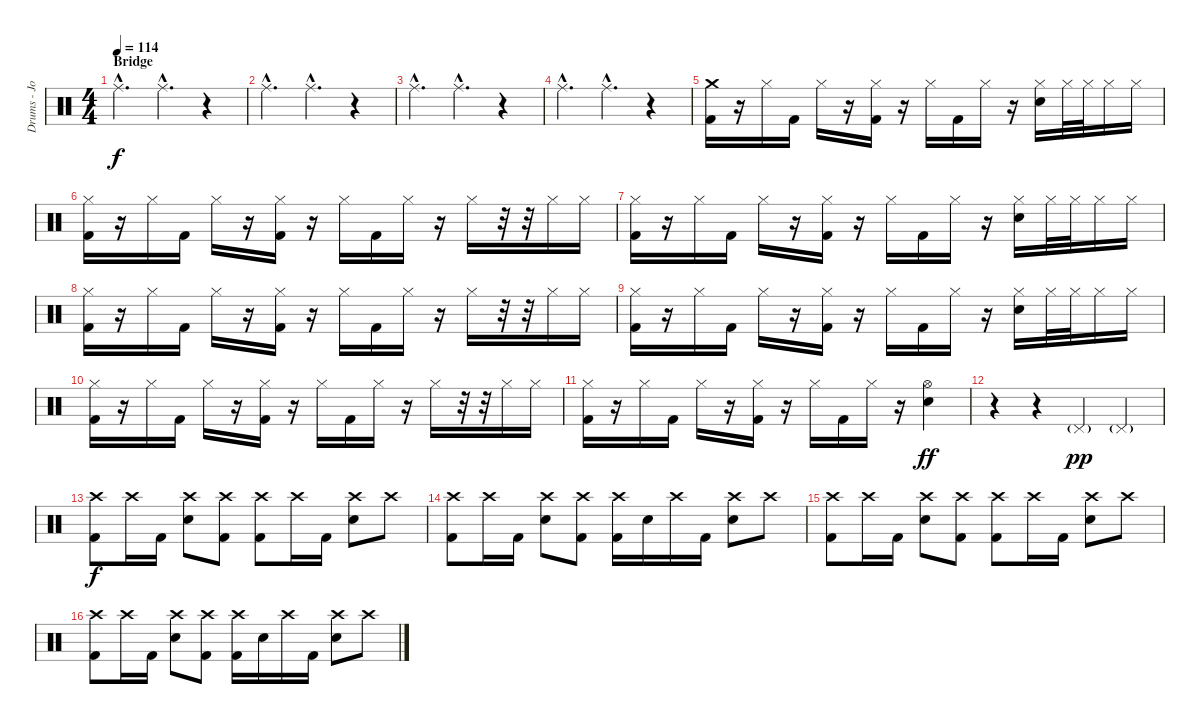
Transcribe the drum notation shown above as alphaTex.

\track ("Drums - Jon Wysocki" "Drums - Jo") {instrument percussion}
\staff {score}
\articulation defaults
\ts (4 4)
\section ("" "Bridge")
\tempo 114
\clef neutral
\ks c "Ride (middle)"{hac}.4{d dy f} "Ride (middle)"{hac}.4{d}
r.4 |
"Ride (middle)"{hac}.4{d} "Ride (middle)"{hac}.4{d} r.4 |
"Ride (middle)"{hac}.4{d} "Ride (middle)"{hac}.4{d} r.4 |
"Ride (middle)"{hac}.4{d} "Ride (middle)"{hac}.4{d} r.4 |
("Crash medium (hit)" "Kick (hit) 2").16 r.16 "Hi-Hat (closed)".16 "Kick (hit) 2".16 "Hi-Hat (closed)".16 r.16 ("Hi-Hat (closed)" "Kick (hit) 2").16 r.16 "Hi-Hat (closed)".16 "Kick (hit) 2".16 "Hi-Hat (closed)".16 r.16 ("Hi-Hat (closed)" "Electric Snare (hit)").16 "Hi-Hat (closed)".32 "Hi-Hat (closed)".32 "Hi-Hat (closed)".16 "Hi-Hat (closed)".16 |
("Hi-Hat (closed)" "Kick (hit) 2").16 r.16 "Hi-Hat (closed)".16 "Kick (hit) 2".16 "Hi-Hat (closed)".16 r.16 ("Hi-Hat (closed)" "Kick (hit) 2").16 r.16 "Hi-Hat (closed)".16 "Kick (hit) 2".16 "Hi-Hat (closed)".16 r.16 "Hi-Hat (closed)".16 r.32 r.32 "Hi-Hat (closed)".16 "Hi-Hat (closed)".16 |
("Hi-Hat (closed)" "Kick (hit) 2").16 r.16 "Hi-Hat (closed)".16 "Kick (hit) 2".16 "Hi-Hat (closed)".16 r.16 ("Hi-Hat (closed)" "Kick (hit) 2").16 r.16 "Hi-Hat (closed)".16 "Kick (hit) 2".16 "Hi-Hat (closed)".16 r.16 ("Hi-Hat (closed)" "Electric Snare (hit)").16 "Hi-Hat (closed)".32 "Hi-Hat (closed)".32 "Hi-Hat (closed)".16 "Hi-Hat (closed)".16 |
("Hi-Hat (closed)" "Kick (hit) 2").16 r.16 "Hi-Hat (closed)".16 "Kick (hit) 2".16 "Hi-Hat (closed)".16 r.16 ("Hi-Hat (closed)" "Kick (hit) 2").16 r.16 "Hi-Hat (closed)".16 "Kick (hit) 2".16 "Hi-Hat (closed)".16 r.16 "Hi-Hat (closed)".16 r.32 r.32 "Hi-Hat (closed)".16 "Hi-Hat (closed)".16 |
("Hi-Hat (closed)" "Kick (hit) 2").16 r.16 "Hi-Hat (closed)".16 "Kick (hit) 2".16 "Hi-Hat (closed)".16 r.16 ("Hi-Hat (closed)" "Kick (hit) 2").16 r.16 "Hi-Hat (closed)".16 "Kick (hit) 2".16 "Hi-Hat (closed)".16 r.16 ("Hi-Hat (closed)" "Electric Snare (hit)").16 "Hi-Hat (closed)".32 "Hi-Hat (closed)".32 "Hi-Hat (closed)".16 "Hi-Hat (closed)".16 |
("Hi-Hat (closed)" "Kick (hit) 2").16 r.16 "Hi-Hat (closed)".16 "Kick (hit) 2".16 "Hi-Hat (closed)".16 r.16 ("Hi-Hat (closed)" "Kick (hit) 2").16 r.16 "Hi-Hat (closed)".16 "Kick (hit) 2".16 "Hi-Hat (closed)".16 r.16 "Hi-Hat (closed)".16 r.32 r.32 "Hi-Hat (closed)".16 "Hi-Hat (closed)".16 |
("Hi-Hat (closed)" "Kick (hit) 2").16 r.16 "Hi-Hat (closed)".16 "Kick (hit) 2".16 "Hi-Hat (closed)".16 r.16 ("Hi-Hat (closed)" "Kick (hit) 2").16 r.16 "Hi-Hat (closed)".16 "Kick (hit) 2".16 "Hi-Hat (closed)".16 r.16 ("Hi-Hat (open)" "Electric Snare (hit)").4{dy ff} |
r.4 r.4 "Pedal Hi-Hat (hit)"{g}.4{dy pp} "Pedal Hi-Hat (hit)"{g}.4 |
("Crash high (hit)" "Kick (hit) 2").8{dy f} "Crash high (hit)".16 "Kick (hit) 2".16 ("Crash high (hit)" "Electric Snare (hit)").8 ("Crash high (hit)" "Kick (hit) 2").8 ("Crash high (hit)" "Kick (hit) 2").8 "Crash high (hit)".16 "Kick (hit) 2".16 ("Crash high (hit)" "Electric Snare (hit)").8 "Crash high (hit)".8 |
("Crash high (hit)" "Kick (hit) 2").8 "Crash high (hit)".16 "Kick (hit) 2".16 ("Crash high (hit)" "Electric Snare (hit)").8 ("Crash high (hit)" "Kick (hit) 2").8 ("Crash high (hit)" "Kick (hit) 2").16 "Electric Snare (hit)".16 "Crash high (hit)".16 "Kick (hit) 2".16 ("Crash high (hit)" "Electric Snare (hit)").8 "Crash high (hit)".8 |
("Crash high (hit)" "Kick (hit) 2").8 "Crash high (hit)".16 "Kick (hit) 2".16 ("Crash high (hit)" "Electric Snare (hit)").8 ("Crash high (hit)" "Kick (hit) 2").8 ("Crash high (hit)" "Kick (hit) 2").8 "Crash high (hit)".16 "Kick (hit) 2".16 ("Crash high (hit)" "Electric Snare (hit)").8 "Crash high (hit)".8 |
("Crash high (hit)" "Kick (hit) 2").8 "Crash high (hit)".16 "Kick (hit) 2".16 ("Crash high (hit)" "Electric Snare (hit)").8 ("Crash high (hit)" "Kick (hit) 2").8 ("Crash high (hit)" "Kick (hit) 2").16 "Electric Snare (hit)".16 "Crash high (hit)".16 "Kick (hit) 2".16 ("Crash high (hit)" "Electric Snare (hit)").8 "Crash high (hit)".8
